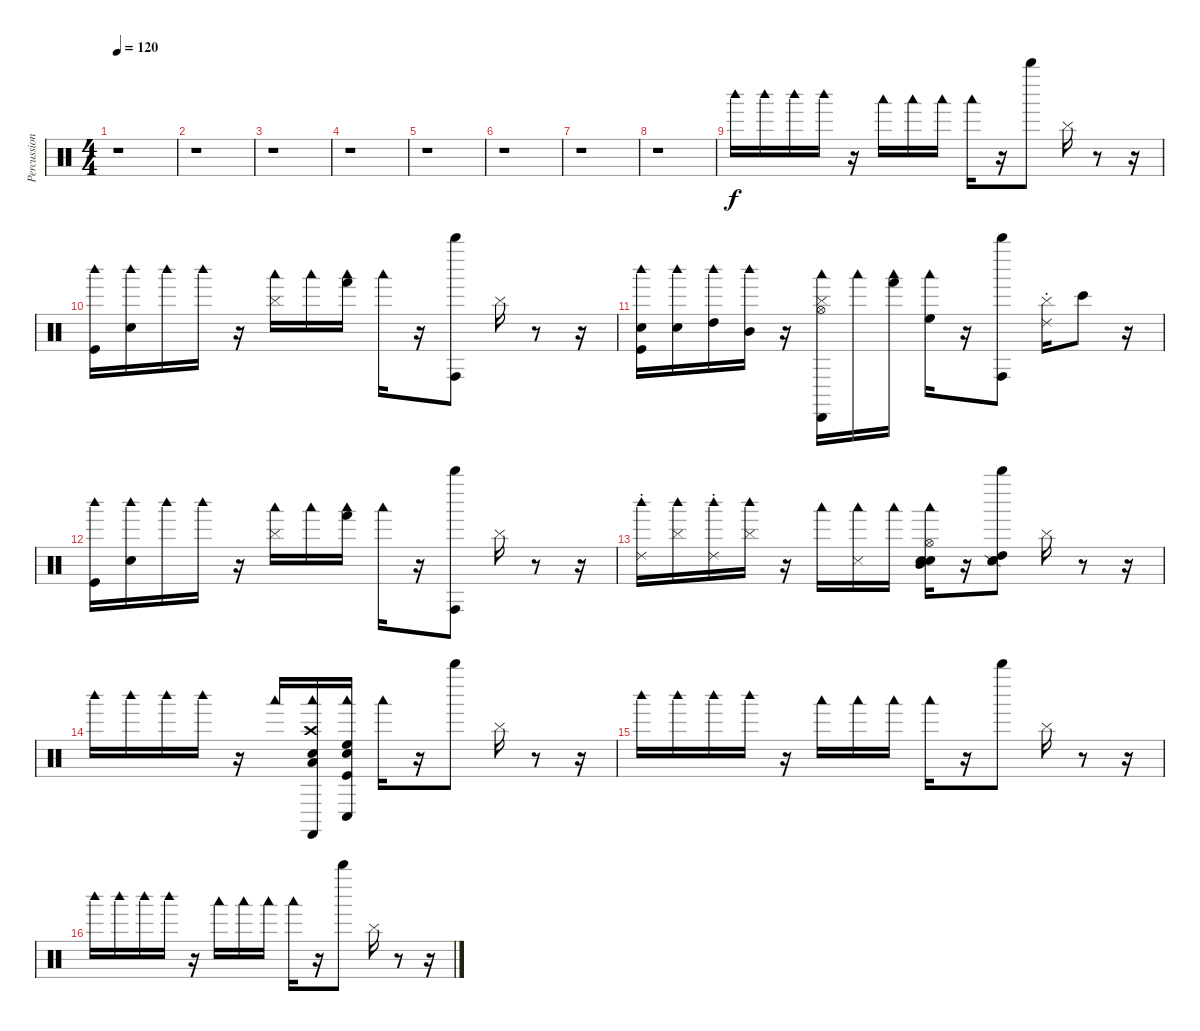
\track ("Percussions" "Percussion") {instrument percussion}
\staff {score}
\articulation defaults
\ts (4 4)
\tempo 120
\clef neutral
\ks c
r.1{dy f} |
r.1 |
r.1 |
r.1 |
r.1 |
r.1 |
r.1 |
r.1 |
"Woodblock high (hit)".16 "Woodblock high (hit)".16 "Woodblock high (hit)".16 "Woodblock high (hit)".16 r.16 "Woodblock low (hit)".16 "Woodblock low (hit)".16 "Woodblock low (hit)".16 "Woodblock low (hit)".16 r.16 "Whistle high (hit)".8 "Cymbal (hit)".16 r.8 r.16 |
("Woodblock high (hit)" "Kick (hit)").16 ("Woodblock high (hit)" "Electric Snare (hit)").16 "Woodblock high (hit)".16 "Woodblock high (hit)".16 r.16 ("Woodblock low (hit)" "Cymbal (hit)").16 "Woodblock low (hit)".16 ("Woodblock low (hit)" "Hand (hit)").16 "Woodblock low (hit)".16 r.16 ("Whistle high (hit)" "Conga high (hit)").8 "Cymbal (hit)".16 r.8 r.16 |
("Woodblock high (hit)" "Kick (hit)" "Snare (hit) 2").16 ("Woodblock high (hit)" "Electric Snare (hit)").16 ("Woodblock high (hit)" "High Tom (hit)").16 ("Woodblock high (hit)" "Mid Tom (hit)").16 r.16 ("Woodblock low (hit)" "Cabasa (hit)" "Cymbal (hit)" "Hi-Hat (open)").16 "Woodblock low (hit)".16 ("Woodblock low (hit)" "Hand (hit)").16 ("Woodblock low (hit)" "High Floor Tom (hit)").16 r.16 ("Whistle high (hit)" "Conga high (hit)").8 ("Cymbal (hit)" "Ride (choke) 2").16 "Bongo High (hit)".8 r.16 |
("Woodblock high (hit)" "Kick (hit)").16 ("Woodblock high (hit)" "Electric Snare (hit)").16 "Woodblock high (hit)".16 "Woodblock high (hit)".16 r.16 ("Woodblock low (hit)" "Cymbal (hit)").16 "Woodblock low (hit)".16 ("Woodblock low (hit)" "Hand (hit)").16 "Woodblock low (hit)".16 r.16 ("Whistle high (hit)" "Conga high (hit)").8 "Cymbal (hit)".16 r.8 r.16 |
("Woodblock high (hit)" "Ride (choke) 2").16 ("Woodblock high (hit)" "Cymbal (hit)").16 ("Woodblock high (hit)" "Ride (choke) 2").16 ("Woodblock high (hit)" "Cymbal (hit)").16 r.16 "Woodblock low (hit)".16 ("Woodblock low (hit)" "Snare (side stick) 3").16 "Woodblock low (hit)".16 ("Woodblock low (hit)" "Electric Snare (hit)" "Mid Tom (hit)" "Hi-Hat (open)" "Hand Clap (hit)").16 r.16 ("Whistle high (hit)" "Snare (hit) 2" "Snare (side stick) 2" "High Tom (hit)").8 "Cymbal (hit)".16 r.8 r.16 |
"Woodblock high (hit)".16 "Woodblock high (hit)".16 "Woodblock high (hit)".16 "Woodblock high (hit)".16 r.16 "Woodblock low (hit)".16 ("Woodblock low (hit)" "Castanets (hit)" "Low Floor Tom (hit)" "Snare (hit) 2" "Crash high (hit)").16 ("Woodblock low (hit)" "Electric Snare (hit)" "Kick (hit)" "Conga low (hit)" "High Floor Tom (hit)").16 "Woodblock low (hit)".16 r.16 "Whistle high (hit)".8 "Cymbal (hit)".16 r.8 r.16 |
"Woodblock high (hit)".16 "Woodblock high (hit)".16 "Woodblock high (hit)".16 "Woodblock high (hit)".16 r.16 "Woodblock low (hit)".16 "Woodblock low (hit)".16 "Woodblock low (hit)".16 "Woodblock low (hit)".16 r.16 "Whistle high (hit)".8 "Cymbal (hit)".16 r.8 r.16 |
"Woodblock high (hit)".16 "Woodblock high (hit)".16 "Woodblock high (hit)".16 "Woodblock high (hit)".16 r.16 "Woodblock low (hit)".16 "Woodblock low (hit)".16 "Woodblock low (hit)".16 "Woodblock low (hit)".16 r.16 "Whistle high (hit)".8 "Cymbal (hit)".16 r.8 r.16
